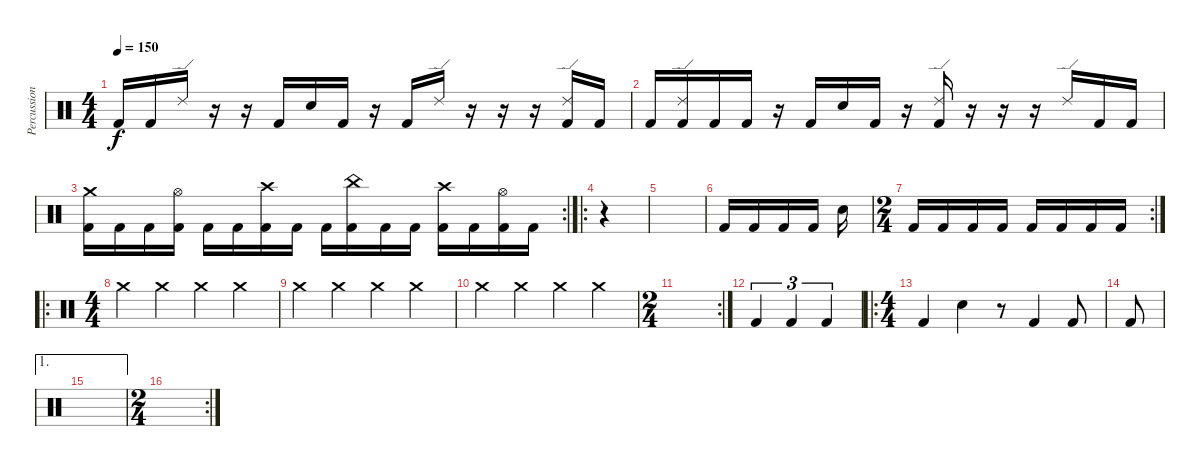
\track ("Percussion" "Percussion") {instrument percussion}
\staff {score}
\articulation defaults
\ts (4 4)
\tempo 150
\clef neutral
\ks c "Kick (hit) 2".16{dy f} "Kick (hit) 2".16 "Ride (edge) 2".16
r.16 r.16 "Kick (hit) 2".16 "Electric Snare (hit)".16 "Kick (hit) 2".16 r.16 "Kick (hit) 2".16 "Ride (edge) 2".16 r.16 r.16 r.16 ("Ride (edge) 2" "Kick (hit) 2").16 "Kick (hit) 2".16 |
"Kick (hit) 2".16 ("Ride (edge) 2" "Kick (hit) 2").16 "Kick (hit) 2".16 "Kick (hit) 2".16 r.16 "Kick (hit) 2".16 "Electric Snare (hit)".16 "Kick (hit) 2".16 r.16 ("Ride (edge) 2" "Kick (hit) 2").16 r.16 r.16 r.16 "Ride (edge) 2".16 "Kick (hit) 2".16 "Kick (hit) 2".16 |
\rc 2
("Crash medium (hit)" "Kick (hit) 2").16 "Kick (hit) 2".16 "Kick (hit) 2".16 ("Hi-Hat (open)" "Kick (hit) 2").16 "Kick (hit) 2".16 "Kick (hit) 2".16 ("Crash high (hit)" "Kick (hit) 2").16 "Kick (hit) 2".16 "Kick (hit) 2".16 ("China (hit)" "Kick (hit) 2").16 "Kick (hit) 2".16 "Kick (hit) 2".16 ("Crash high (hit)" "Kick (hit) 2").16 "Kick (hit) 2".16 ("Hi-Hat (open)" "Kick (hit) 2").16 "Kick (hit) 2".16 |
\ro
r.4 |
|
"Kick (hit) 2".16 "Kick (hit) 2".16 "Kick (hit) 2".16 "Kick (hit) 2".16 "Electric Snare (hit)".16 |
\rc 2
\ts (2 4)
"Kick (hit) 2".16 "Kick (hit) 2".16 "Kick (hit) 2".16 "Kick (hit) 2".16 "Kick (hit) 2".16 "Kick (hit) 2".16 "Kick (hit) 2".16 "Kick (hit) 2".16 |
\ro
\ts (4 4)
"Crash medium (hit)".4 "Crash medium (hit)".4 "Crash medium (hit)".4 "Crash medium (hit)".4 |
"Crash medium (hit)".4 "Crash medium (hit)".4 "Crash medium (hit)".4 "Crash medium (hit)".4 |
"Crash medium (hit)".4 "Crash medium (hit)".4 "Crash medium (hit)".4 "Crash medium (hit)".4 |
\rc 2
\ts (2 4)
|
"Kick (hit) 2".4{tu (3 2)} "Kick (hit) 2".4{tu (3 2)} "Kick (hit) 2".4{tu (3 2)} |
\ro
\ts (4 4)
"Kick (hit) 2".4 "Electric Snare (hit)".4 r.8 "Kick (hit) 2".4 "Kick (hit) 2".8 |
"Kick (hit) 2".8 |
\ae 1
|
\rc 2
\ts (2 4)
